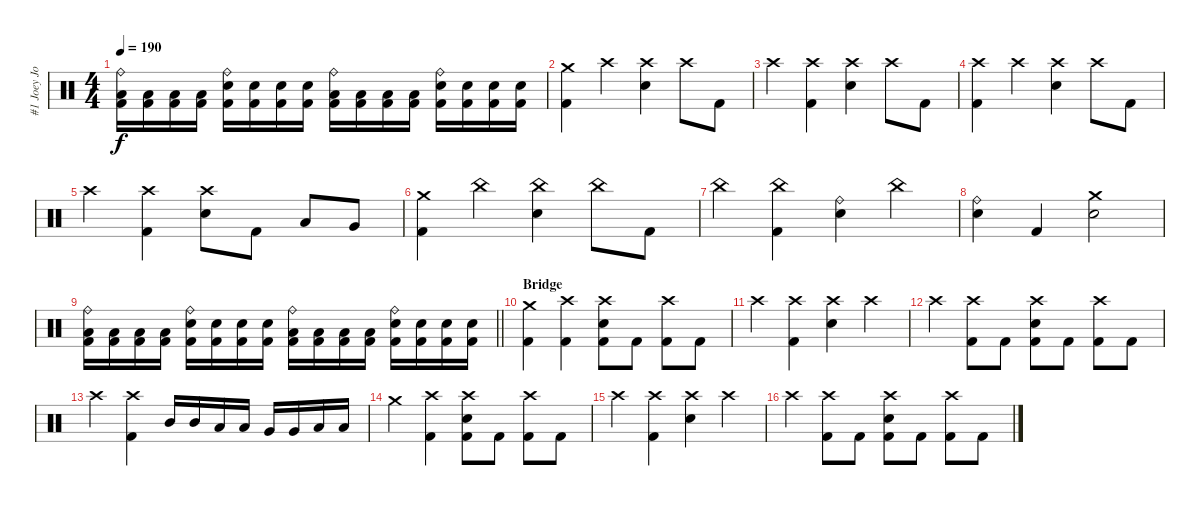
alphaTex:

\track ("#1 Joey Jordison" "#1 Joey Jo") {instrument percussion}
\staff {score}
\articulation defaults
\ts (4 4)
\tempo 190
\clef neutral
\ks c
("Ride (bell)" "Low Floor Tom (hit)" "Kick (hit) 2").16{dy f} ("Low Floor Tom (hit)" "Kick (hit) 2").16 ("Low Floor Tom (hit)" "Kick (hit) 2").16 ("Low Floor Tom (hit)" "Kick (hit) 2").16 ("Ride (bell)" "Electric Snare (hit)" "Kick (hit) 2").16 ("Electric Snare (hit)" "Kick (hit) 2").16 ("Electric Snare (hit)" "Kick (hit) 2").16 ("Electric Snare (hit)" "Kick (hit) 2").16 ("Ride (bell)" "Low Floor Tom (hit)" "Kick (hit) 2").16 ("Low Floor Tom (hit)" "Kick (hit) 2").16 ("Low Floor Tom (hit)" "Kick (hit) 2").16 ("Low Floor Tom (hit)" "Kick (hit) 2").16 ("Ride (bell)" "Electric Snare (hit)" "Kick (hit) 2").16 ("Electric Snare (hit)" "Kick (hit) 2").16 ("Electric Snare (hit)" "Kick (hit) 2").16 ("Electric Snare (hit)" "Kick (hit) 2").16 |
("Crash medium (hit)" "Kick (hit) 2").4 "Crash high (hit)".4 ("Crash high (hit)" "Electric Snare (hit)").4 "Crash high (hit)".8 "Kick (hit) 2".8 |
"Crash high (hit)".4 ("Crash high (hit)" "Kick (hit) 2").4 ("Crash high (hit)" "Electric Snare (hit)").4 "Crash high (hit)".8 "Kick (hit) 2".8 |
("Crash high (hit)" "Kick (hit) 2").4 "Crash high (hit)".4 ("Crash high (hit)" "Electric Snare (hit)").4 "Crash high (hit)".8 "Kick (hit) 2".8 |
"Crash high (hit)".4 ("Crash high (hit)" "Kick (hit) 2").4 ("Crash high (hit)" "Electric Snare (hit)").8 "Kick (hit) 2".8 "Low Tom (hit)".8 "Very Low Tom (hit)".8 |
("Crash medium (hit)" "Kick (hit) 2").4 "China (hit)".4 ("China (hit)" "Electric Snare (hit)").4 "China (hit)".8 "Kick (hit) 2".8 |
"China (hit)".4 ("China (hit)" "Kick (hit) 2").4 ("Ride (bell)" "Electric Snare (hit)").4 "China (hit)".4 |
("Ride (bell)" "Electric Snare (hit)").4 "Kick (hit) 2".4 ("Crash medium (hit)" "Electric Snare (hit)").2 |
\barLineRight lightlight
("Ride (bell)" "Low Floor Tom (hit)" "Kick (hit) 2").16 ("Low Floor Tom (hit)" "Kick (hit) 2").16 ("Low Floor Tom (hit)" "Kick (hit) 2").16 ("Low Floor Tom (hit)" "Kick (hit) 2").16 ("Ride (bell)" "Electric Snare (hit)" "Kick (hit) 2").16 ("Electric Snare (hit)" "Kick (hit) 2").16 ("Electric Snare (hit)" "Kick (hit) 2").16 ("Electric Snare (hit)" "Kick (hit) 2").16 ("Ride (bell)" "Low Floor Tom (hit)" "Kick (hit) 2").16 ("Low Floor Tom (hit)" "Kick (hit) 2").16 ("Low Floor Tom (hit)" "Kick (hit) 2").16 ("Low Floor Tom (hit)" "Kick (hit) 2").16 ("Ride (bell)" "Electric Snare (hit)" "Kick (hit) 2").16 ("Electric Snare (hit)" "Kick (hit) 2").16 ("Electric Snare (hit)" "Kick (hit) 2").16 ("Electric Snare (hit)" "Kick (hit) 2").16 |
\section ("" "Bridge")
("Crash medium (hit)" "Kick (hit) 2").4 ("Crash high (hit)" "Kick (hit) 2").4 ("Crash high (hit)" "Electric Snare (hit)" "Kick (hit) 2").8 "Kick (hit) 2".8 ("Crash high (hit)" "Kick (hit) 2").8 "Kick (hit) 2".8 |
"Crash high (hit)".4 ("Crash high (hit)" "Kick (hit) 2").4 ("Crash high (hit)" "Electric Snare (hit)").4 "Crash high (hit)".4 |
"Crash high (hit)".4 ("Crash high (hit)" "Kick (hit) 2").8 "Kick (hit) 2".8 ("Crash high (hit)" "Electric Snare (hit)" "Kick (hit) 2").8 "Kick (hit) 2".8 ("Crash high (hit)" "Kick (hit) 2").8 "Kick (hit) 2".8 |
"Crash high (hit)".4 ("Crash high (hit)" "Kick (hit) 2").4 "Mid Tom (hit)".16 "Mid Tom (hit)".16 "Low Tom (hit)".16 "Low Tom (hit)".16 "Very Low Tom (hit)".16 "Very Low Tom (hit)".16 "Low Floor Tom (hit)".16 "Low Floor Tom (hit)".16 |
"Crash medium (hit)".4 ("Crash high (hit)" "Kick (hit) 2").4 ("Crash high (hit)" "Electric Snare (hit)" "Kick (hit) 2").8 "Kick (hit) 2".8 ("Crash high (hit)" "Kick (hit) 2").8 "Kick (hit) 2".8 |
"Crash high (hit)".4 ("Crash high (hit)" "Kick (hit) 2").4 ("Crash high (hit)" "Electric Snare (hit)").4 "Crash high (hit)".4 |
"Crash high (hit)".4 ("Crash high (hit)" "Kick (hit) 2").8 "Kick (hit) 2".8 ("Crash high (hit)" "Electric Snare (hit)" "Kick (hit) 2").8 "Kick (hit) 2".8 ("Crash high (hit)" "Kick (hit) 2").8 "Kick (hit) 2".8
